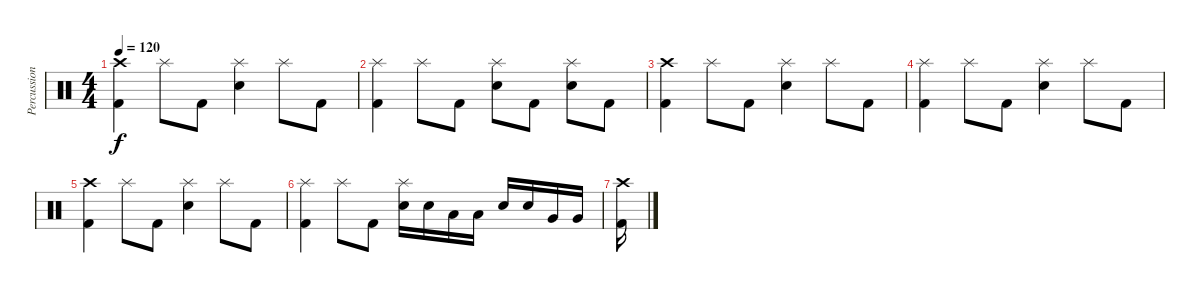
\track ("Percussion" "Percussion") {instrument percussion}
\staff {score}
\articulation defaults
\ts (4 4)
\tempo 120
\clef neutral
\ks c
("Crash high (hit)" "Kick (hit) 2").4{dy f} "Splash (hit)".8 "Kick (hit) 2".8 ("Splash (hit)" "Electric Snare (hit)").4 "Splash (hit)".8 "Kick (hit) 2".8 |
("Splash (hit)" "Kick (hit) 2").4 "Splash (hit)".8 "Kick (hit) 2".8 ("Splash (hit)" "Electric Snare (hit)").8 "Kick (hit) 2".8 ("Splash (hit)" "Electric Snare (hit)").8 "Kick (hit) 2".8 |
("Crash high (hit)" "Kick (hit) 2").4 "Splash (hit)".8 "Kick (hit) 2".8 ("Splash (hit)" "Electric Snare (hit)").4 "Splash (hit)".8 "Kick (hit) 2".8 |
("Splash (hit)" "Kick (hit) 2").4 "Splash (hit)".8 "Kick (hit) 2".8 ("Splash (hit)" "Electric Snare (hit)").4 "Splash (hit)".8 "Kick (hit) 2".8 |
("Crash high (hit)" "Kick (hit) 2").4 "Splash (hit)".8 "Kick (hit) 2".8 ("Splash (hit)" "Electric Snare (hit)").4 "Splash (hit)".8 "Kick (hit) 2".8 |
("Splash (hit)" "Kick (hit) 2").4 "Splash (hit)".8 "Kick (hit) 2".8 ("Splash (hit)" "Electric Snare (hit)").16 "Electric Snare (hit)".16 "Low Tom (hit)".16 "Low Tom (hit)".16 "Electric Snare (hit)".16 "Electric Snare (hit)".16 "Very Low Tom (hit)".16 "Very Low Tom (hit)".16 |
("Crash high (hit)" "Kick (hit) 2").16
